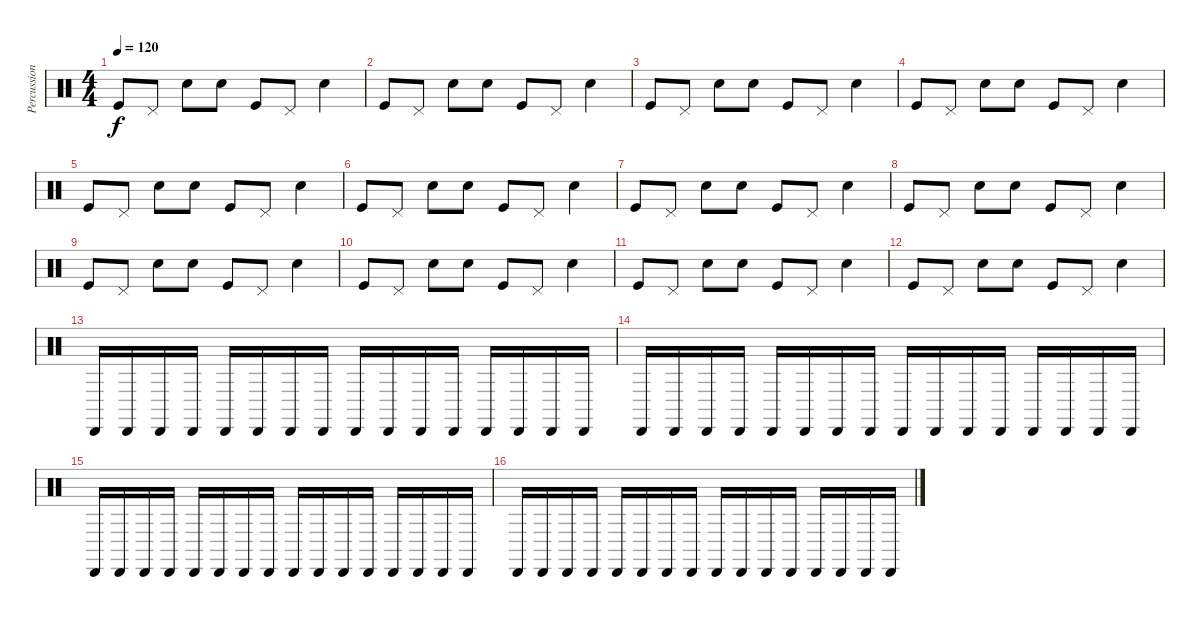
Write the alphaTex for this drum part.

\track ("Percussion" "Percussion") {instrument percussion}
\staff {score}
\articulation defaults
\ts (4 4)
\tempo 120
\clef neutral
\ks c "Kick (hit)".8{dy f} "Pedal Hi-Hat (hit)".8 "Hand Clap (hit)".8 "Hand Clap (hit)".8 "Kick (hit)".8 "Pedal Hi-Hat (hit)".8 "Hand Clap (hit)".4
|
"Kick (hit)".8 "Pedal Hi-Hat (hit)".8 "Hand Clap (hit)".8 "Hand Clap (hit)".8 "Kick (hit)".8 "Pedal Hi-Hat (hit)".8 "Hand Clap (hit)".4 |
"Kick (hit)".8 "Pedal Hi-Hat (hit)".8 "Hand Clap (hit)".8 "Hand Clap (hit)".8 "Kick (hit)".8 "Pedal Hi-Hat (hit)".8 "Hand Clap (hit)".4 |
"Kick (hit)".8 "Pedal Hi-Hat (hit)".8 "Hand Clap (hit)".8 "Hand Clap (hit)".8 "Kick (hit)".8 "Pedal Hi-Hat (hit)".8 "Hand Clap (hit)".4 |
"Kick (hit)".8 "Pedal Hi-Hat (hit)".8 "Hand Clap (hit)".8 "Hand Clap (hit)".8 "Kick (hit)".8 "Pedal Hi-Hat (hit)".8 "Hand Clap (hit)".4 |
"Kick (hit)".8 "Pedal Hi-Hat (hit)".8 "Hand Clap (hit)".8 "Hand Clap (hit)".8 "Kick (hit)".8 "Pedal Hi-Hat (hit)".8 "Hand Clap (hit)".4 |
"Kick (hit)".8 "Pedal Hi-Hat (hit)".8 "Hand Clap (hit)".8 "Hand Clap (hit)".8 "Kick (hit)".8 "Pedal Hi-Hat (hit)".8 "Hand Clap (hit)".4 |
"Kick (hit)".8 "Pedal Hi-Hat (hit)".8 "Hand Clap (hit)".8 "Hand Clap (hit)".8 "Kick (hit)".8 "Pedal Hi-Hat (hit)".8 "Hand Clap (hit)".4 |
"Kick (hit)".8 "Pedal Hi-Hat (hit)".8 "Hand Clap (hit)".8 "Hand Clap (hit)".8 "Kick (hit)".8 "Pedal Hi-Hat (hit)".8 "Hand Clap (hit)".4 |
"Kick (hit)".8 "Pedal Hi-Hat (hit)".8 "Hand Clap (hit)".8 "Hand Clap (hit)".8 "Kick (hit)".8 "Pedal Hi-Hat (hit)".8 "Hand Clap (hit)".4 |
"Kick (hit)".8 "Pedal Hi-Hat (hit)".8 "Hand Clap (hit)".8 "Hand Clap (hit)".8 "Kick (hit)".8 "Pedal Hi-Hat (hit)".8 "Hand Clap (hit)".4 |
"Kick (hit)".8 "Pedal Hi-Hat (hit)".8 "Hand Clap (hit)".8 "Hand Clap (hit)".8 "Kick (hit)".8 "Pedal Hi-Hat (hit)".8 "Hand Clap (hit)".4 |
"Cabasa (hit)".16 "Cabasa (hit)".16 "Cabasa (hit)".16 "Cabasa (hit)".16 "Cabasa (hit)".16 "Cabasa (hit)".16 "Cabasa (hit)".16 "Cabasa (hit)".16 "Cabasa (hit)".16 "Cabasa (hit)".16 "Cabasa (hit)".16 "Cabasa (hit)".16 "Cabasa (hit)".16 "Cabasa (hit)".16 "Cabasa (hit)".16 "Cabasa (hit)".16 |
"Cabasa (hit)".16 "Cabasa (hit)".16 "Cabasa (hit)".16 "Cabasa (hit)".16 "Cabasa (hit)".16 "Cabasa (hit)".16 "Cabasa (hit)".16 "Cabasa (hit)".16 "Cabasa (hit)".16 "Cabasa (hit)".16 "Cabasa (hit)".16 "Cabasa (hit)".16 "Cabasa (hit)".16 "Cabasa (hit)".16 "Cabasa (hit)".16 "Cabasa (hit)".16 |
"Cabasa (hit)".16 "Cabasa (hit)".16 "Cabasa (hit)".16 "Cabasa (hit)".16 "Cabasa (hit)".16 "Cabasa (hit)".16 "Cabasa (hit)".16 "Cabasa (hit)".16 "Cabasa (hit)".16 "Cabasa (hit)".16 "Cabasa (hit)".16 "Cabasa (hit)".16 "Cabasa (hit)".16 "Cabasa (hit)".16 "Cabasa (hit)".16 "Cabasa (hit)".16 |
"Cabasa (hit)".16 "Cabasa (hit)".16 "Cabasa (hit)".16 "Cabasa (hit)".16 "Cabasa (hit)".16 "Cabasa (hit)".16 "Cabasa (hit)".16 "Cabasa (hit)".16 "Cabasa (hit)".16 "Cabasa (hit)".16 "Cabasa (hit)".16 "Cabasa (hit)".16 "Cabasa (hit)".16 "Cabasa (hit)".16 "Cabasa (hit)".16 "Cabasa (hit)".16
